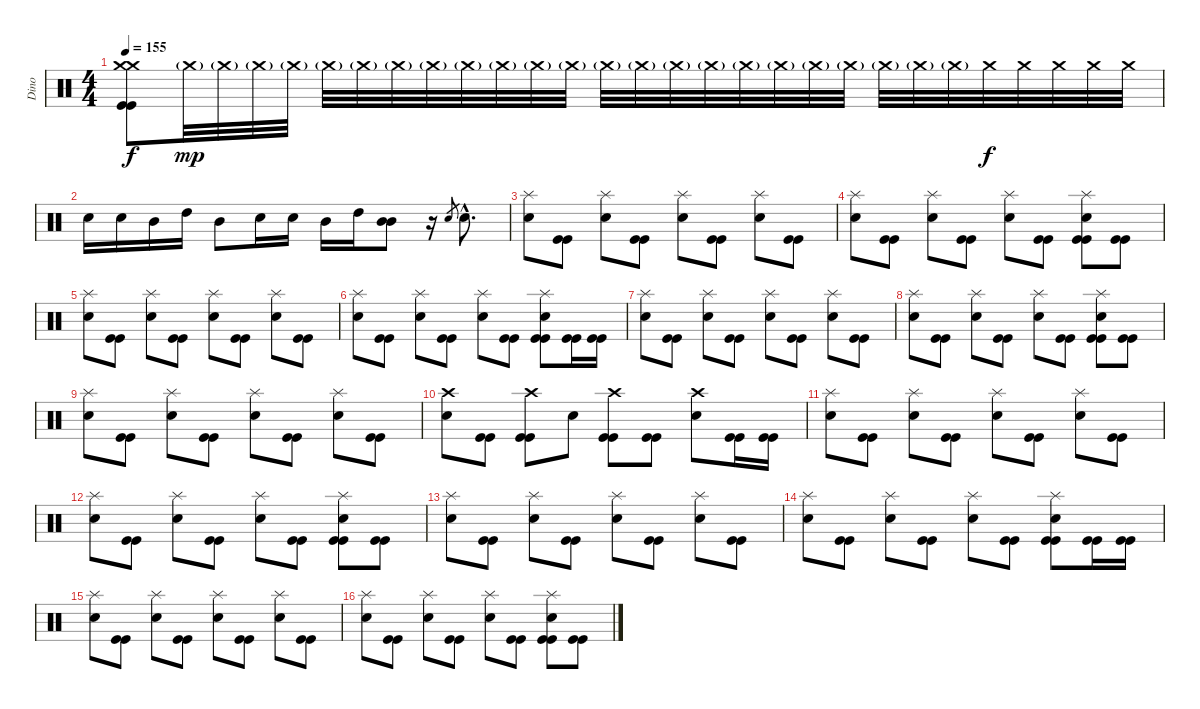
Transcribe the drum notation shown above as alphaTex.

\track ("Dino" "Dino") {instrument percussion}
\staff {score}
\articulation defaults
\ts (4 4)
\tempo 155
\clef neutral
\ks c
("Crash medium (hit)" "Crash medium (hit)" "Kick (hit)" "Kick (hit)").8{dy f} "Crash medium (hit)"{g}.32{dy mp} "Crash medium (hit)"{g}.32 "Crash medium (hit)"{g}.32 "Crash medium (hit)"{g}.32 "Crash medium (hit)"{g}.32 "Crash medium (hit)"{g}.32 "Crash medium (hit)"{g}.32 "Crash medium (hit)"{g}.32 "Crash medium (hit)"{g}.32 "Crash medium (hit)"{g}.32 "Crash medium (hit)"{g}.32 "Crash medium (hit)"{g}.32 "Crash medium (hit)"{g}.32 "Crash medium (hit)"{g}.32 "Crash medium (hit)"{g}.32 "Crash medium (hit)"{g}.32 "Crash medium (hit)"{g}.32 "Crash medium (hit)"{g}.32 "Crash medium (hit)"{g}.32 "Crash medium (hit)"{g}.32 "Crash medium (hit)"{g}.32 "Crash medium (hit)"{g}.32 "Crash medium (hit)"{g}.32 "Crash medium (hit)".32{dy f} "Crash medium (hit)".32 "Crash medium (hit)".32 "Crash medium (hit)".32 "Crash medium (hit)".32 |
"Electric Snare (hit)".16 "Electric Snare (hit)".16 "Mid Tom (hit)".16 "High Tom (hit)".16 "Mid Tom (hit)".8 "Electric Snare (hit)".16 "Electric Snare (hit)".16 "Mid Tom (hit)".16 "High Tom (hit)".16 ("Mid Tom (hit)" "Mid Tom (hit)").8 r.16 "Electric Snare (hit)".8{gr} "Electric Snare (hit)"{hac}.8{d} |
("Splash (hit)" "Electric Snare (hit)").8 ("Kick (hit)" "Kick (hit)").8 ("Splash (hit)" "Electric Snare (hit)").8 ("Kick (hit)" "Kick (hit)").8 ("Splash (hit)" "Electric Snare (hit)").8 ("Kick (hit)" "Kick (hit)").8 ("Splash (hit)" "Electric Snare (hit)").8 ("Kick (hit)" "Kick (hit)").8 |
("Splash (hit)" "Electric Snare (hit)").8 ("Kick (hit)" "Kick (hit)").8 ("Splash (hit)" "Electric Snare (hit)").8 ("Kick (hit)" "Kick (hit)").8 ("Splash (hit)" "Electric Snare (hit)").8 ("Kick (hit)" "Kick (hit)").8 ("Splash (hit)" "Electric Snare (hit)" "Kick (hit)" "Kick (hit)").8 ("Kick (hit)" "Kick (hit)").8 |
("Splash (hit)" "Electric Snare (hit)").8 ("Kick (hit)" "Kick (hit)").8 ("Splash (hit)" "Electric Snare (hit)").8 ("Kick (hit)" "Kick (hit)").8 ("Splash (hit)" "Electric Snare (hit)").8 ("Kick (hit)" "Kick (hit)").8 ("Splash (hit)" "Electric Snare (hit)").8 ("Kick (hit)" "Kick (hit)").8 |
("Splash (hit)" "Electric Snare (hit)").8 ("Kick (hit)" "Kick (hit)").8 ("Splash (hit)" "Electric Snare (hit)").8 ("Kick (hit)" "Kick (hit)").8 ("Splash (hit)" "Electric Snare (hit)").8 ("Kick (hit)" "Kick (hit)").8 ("Splash (hit)" "Electric Snare (hit)" "Kick (hit)" "Kick (hit)").8 ("Kick (hit)" "Kick (hit)").16 ("Kick (hit)" "Kick (hit)").16 |
("Splash (hit)" "Electric Snare (hit)").8 ("Kick (hit)" "Kick (hit)").8 ("Splash (hit)" "Electric Snare (hit)").8 ("Kick (hit)" "Kick (hit)").8 ("Splash (hit)" "Electric Snare (hit)").8 ("Kick (hit)" "Kick (hit)").8 ("Splash (hit)" "Electric Snare (hit)").8 ("Kick (hit)" "Kick (hit)").8 |
("Splash (hit)" "Electric Snare (hit)").8 ("Kick (hit)" "Kick (hit)").8 ("Splash (hit)" "Electric Snare (hit)").8 ("Kick (hit)" "Kick (hit)").8 ("Splash (hit)" "Electric Snare (hit)").8 ("Kick (hit)" "Kick (hit)").8 ("Splash (hit)" "Electric Snare (hit)" "Kick (hit)" "Kick (hit)").8 ("Kick (hit)" "Kick (hit)").8 |
("Splash (hit)" "Electric Snare (hit)").8 ("Kick (hit)" "Kick (hit)").8 ("Splash (hit)" "Electric Snare (hit)").8 ("Kick (hit)" "Kick (hit)").8 ("Splash (hit)" "Electric Snare (hit)").8 ("Kick (hit)" "Kick (hit)").8 ("Splash (hit)" "Electric Snare (hit)").8 ("Kick (hit)" "Kick (hit)").8 |
("Crash high (hit)" "Electric Snare (hit)").8 ("Kick (hit)" "Kick (hit)").8 ("Crash high (hit)" "Kick (hit)" "Kick (hit)").8 "Electric Snare (hit)".8 ("Crash high (hit)" "Kick (hit)" "Kick (hit)").8 ("Kick (hit)" "Kick (hit)").8 ("Crash high (hit)" "Electric Snare (hit)").8 ("Kick (hit)" "Kick (hit)").16 ("Kick (hit)" "Kick (hit)").16 |
("Splash (hit)" "Electric Snare (hit)").8 ("Kick (hit)" "Kick (hit)").8 ("Splash (hit)" "Electric Snare (hit)").8 ("Kick (hit)" "Kick (hit)").8 ("Splash (hit)" "Electric Snare (hit)").8 ("Kick (hit)" "Kick (hit)").8 ("Splash (hit)" "Electric Snare (hit)").8 ("Kick (hit)" "Kick (hit)").8 |
("Splash (hit)" "Electric Snare (hit)").8 ("Kick (hit)" "Kick (hit)").8 ("Splash (hit)" "Electric Snare (hit)").8 ("Kick (hit)" "Kick (hit)").8 ("Splash (hit)" "Electric Snare (hit)").8 ("Kick (hit)" "Kick (hit)").8 ("Splash (hit)" "Electric Snare (hit)" "Kick (hit)" "Kick (hit)").8 ("Kick (hit)" "Kick (hit)").8 |
("Splash (hit)" "Electric Snare (hit)").8 ("Kick (hit)" "Kick (hit)").8 ("Splash (hit)" "Electric Snare (hit)").8 ("Kick (hit)" "Kick (hit)").8 ("Splash (hit)" "Electric Snare (hit)").8 ("Kick (hit)" "Kick (hit)").8 ("Splash (hit)" "Electric Snare (hit)").8 ("Kick (hit)" "Kick (hit)").8 |
("Splash (hit)" "Electric Snare (hit)").8 ("Kick (hit)" "Kick (hit)").8 ("Splash (hit)" "Electric Snare (hit)").8 ("Kick (hit)" "Kick (hit)").8 ("Splash (hit)" "Electric Snare (hit)").8 ("Kick (hit)" "Kick (hit)").8 ("Splash (hit)" "Electric Snare (hit)" "Kick (hit)" "Kick (hit)").8 ("Kick (hit)" "Kick (hit)").16 ("Kick (hit)" "Kick (hit)").16 |
("Splash (hit)" "Electric Snare (hit)").8 ("Kick (hit)" "Kick (hit)").8 ("Splash (hit)" "Electric Snare (hit)").8 ("Kick (hit)" "Kick (hit)").8 ("Splash (hit)" "Electric Snare (hit)").8 ("Kick (hit)" "Kick (hit)").8 ("Splash (hit)" "Electric Snare (hit)").8 ("Kick (hit)" "Kick (hit)").8 |
("Splash (hit)" "Electric Snare (hit)").8 ("Kick (hit)" "Kick (hit)").8 ("Splash (hit)" "Electric Snare (hit)").8 ("Kick (hit)" "Kick (hit)").8 ("Splash (hit)" "Electric Snare (hit)").8 ("Kick (hit)" "Kick (hit)").8 ("Splash (hit)" "Electric Snare (hit)" "Kick (hit)" "Kick (hit)").8 ("Kick (hit)" "Kick (hit)").8
